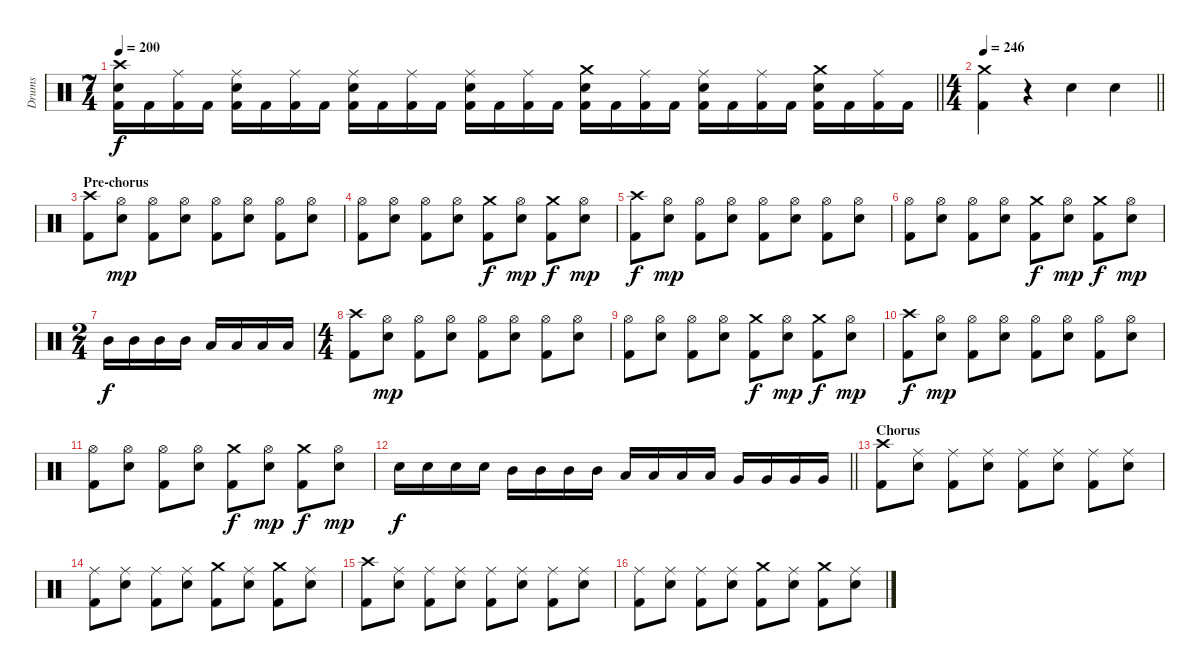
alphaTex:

\track ("Drums" "Drums") {instrument percussion}
\staff {score}
\articulation defaults
\ts (7 4)
\tempo 200
\clef neutral
\barLineRight lightlight
\ks c
("Crash high (hit)" "Snare (hit) 2" "Kick (hit) 2").16{dy f} "Kick (hit) 2".16 ("Ride (middle)" "Kick (hit) 2").16 "Kick (hit) 2".16 ("Ride (middle)" "Snare (hit) 2" "Kick (hit) 2").16 "Kick (hit) 2".16 ("Ride (middle)" "Kick (hit) 2").16 "Kick (hit) 2".16 ("Ride (middle)" "Snare (hit) 2" "Kick (hit) 2").16 "Kick (hit) 2".16 ("Ride (middle)" "Kick (hit) 2").16 "Kick (hit) 2".16 ("Ride (middle)" "Snare (hit) 2" "Kick (hit) 2").16 "Kick (hit) 2".16 ("Ride (middle)" "Kick (hit) 2").16 "Kick (hit) 2".16 ("Crash medium (hit)" "Snare (hit) 2" "Kick (hit) 2").16 "Kick (hit) 2".16 ("Ride (middle)" "Kick (hit) 2").16 "Kick (hit) 2".16 ("Ride (middle)" "Snare (hit) 2" "Kick (hit) 2").16 "Kick (hit) 2".16 ("Ride (middle)" "Kick (hit) 2").16 "Kick (hit) 2".16 ("Crash medium (hit)" "Snare (hit) 2" "Kick (hit) 2").16 "Kick (hit) 2".16 ("Ride (middle)" "Kick (hit) 2").16 "Kick (hit) 2".16 |
\ts (4 4)
\section ("" "")
\tempo 246
\barLineRight lightlight
("Crash medium (hit)" "Kick (hit) 2").4 r.4 "Snare (hit) 2".4 "Snare (hit) 2".4 |
\section ("" "Pre-chorus")
("Crash high (hit)" "Kick (hit) 2").8 ("Hi-Hat (open)" "Snare (hit) 2").8{dy mp} ("Hi-Hat (open)" "Kick (hit) 2").8 ("Hi-Hat (open)" "Snare (hit) 2").8 ("Hi-Hat (open)" "Kick (hit) 2").8 ("Hi-Hat (open)" "Snare (hit) 2").8 ("Hi-Hat (open)" "Kick (hit) 2").8 ("Hi-Hat (open)" "Snare (hit) 2").8 |
("Hi-Hat (open)" "Kick (hit) 2").8 ("Hi-Hat (open)" "Snare (hit) 2").8 ("Hi-Hat (open)" "Kick (hit) 2").8 ("Hi-Hat (open)" "Snare (hit) 2").8 ("Crash medium (hit)" "Kick (hit) 2").8{dy f} ("Hi-Hat (open)" "Snare (hit) 2").8{dy mp} ("Crash medium (hit)" "Kick (hit) 2").8{dy f} ("Hi-Hat (open)" "Snare (hit) 2").8{dy mp} |
("Crash high (hit)" "Kick (hit) 2").8{dy f} ("Hi-Hat (open)" "Snare (hit) 2").8{dy mp} ("Hi-Hat (open)" "Kick (hit) 2").8 ("Hi-Hat (open)" "Snare (hit) 2").8 ("Hi-Hat (open)" "Kick (hit) 2").8 ("Hi-Hat (open)" "Snare (hit) 2").8 ("Hi-Hat (open)" "Kick (hit) 2").8 ("Hi-Hat (open)" "Snare (hit) 2").8 |
("Hi-Hat (open)" "Kick (hit) 2").8 ("Hi-Hat (open)" "Snare (hit) 2").8 ("Hi-Hat (open)" "Kick (hit) 2").8 ("Hi-Hat (open)" "Snare (hit) 2").8 ("Crash medium (hit)" "Kick (hit) 2").8{dy f} ("Hi-Hat (open)" "Snare (hit) 2").8{dy mp} ("Crash medium (hit)" "Kick (hit) 2").8{dy f} ("Hi-Hat (open)" "Snare (hit) 2").8{dy mp} |
\ts (2 4)
"Mid Tom (hit)".16{dy f} "Mid Tom (hit)".16 "Mid Tom (hit)".16 "Mid Tom (hit)".16 "Low Tom (hit)".16 "Low Tom (hit)".16 "Low Tom (hit)".16 "Low Tom (hit)".16 |
\ts (4 4)
("Crash high (hit)" "Kick (hit) 2").8 ("Hi-Hat (open)" "Snare (hit) 2").8{dy mp} ("Hi-Hat (open)" "Kick (hit) 2").8 ("Hi-Hat (open)" "Snare (hit) 2").8 ("Hi-Hat (open)" "Kick (hit) 2").8 ("Hi-Hat (open)" "Snare (hit) 2").8 ("Hi-Hat (open)" "Kick (hit) 2").8 ("Hi-Hat (open)" "Snare (hit) 2").8 |
("Hi-Hat (open)" "Kick (hit) 2").8 ("Hi-Hat (open)" "Snare (hit) 2").8 ("Hi-Hat (open)" "Kick (hit) 2").8 ("Hi-Hat (open)" "Snare (hit) 2").8 ("Crash medium (hit)" "Kick (hit) 2").8{dy f} ("Hi-Hat (open)" "Snare (hit) 2").8{dy mp} ("Crash medium (hit)" "Kick (hit) 2").8{dy f} ("Hi-Hat (open)" "Snare (hit) 2").8{dy mp} |
("Crash high (hit)" "Kick (hit) 2").8{dy f} ("Hi-Hat (open)" "Snare (hit) 2").8{dy mp} ("Hi-Hat (open)" "Kick (hit) 2").8 ("Hi-Hat (open)" "Snare (hit) 2").8 ("Hi-Hat (open)" "Kick (hit) 2").8 ("Hi-Hat (open)" "Snare (hit) 2").8 ("Hi-Hat (open)" "Kick (hit) 2").8 ("Hi-Hat (open)" "Snare (hit) 2").8 |
("Hi-Hat (open)" "Kick (hit) 2").8 ("Hi-Hat (open)" "Snare (hit) 2").8 ("Hi-Hat (open)" "Kick (hit) 2").8 ("Hi-Hat (open)" "Snare (hit) 2").8 ("Crash medium (hit)" "Kick (hit) 2").8{dy f} ("Hi-Hat (open)" "Snare (hit) 2").8{dy mp} ("Crash medium (hit)" "Kick (hit) 2").8{dy f} ("Hi-Hat (open)" "Snare (hit) 2").8{dy mp} |
\barLineRight lightlight "Snare (hit) 2".16{dy f} "Snare (hit) 2".16 "Snare (hit) 2".16 "Snare (hit) 2".16 "Mid Tom (hit)".16 "Mid Tom (hit)".16 "Mid Tom (hit)".16 "Mid Tom (hit)".16 "Low Tom (hit)".16 "Low Tom (hit)".16 "Low Tom (hit)".16 "Low Tom (hit)".16 "Very Low Tom (hit)".16 "Very Low Tom (hit)".16 "Very Low Tom (hit)".16 "Very Low Tom (hit)".16
|
\section ("" "Chorus")
("Crash high (hit)" "Kick (hit) 2").8 ("Ride (middle)" "Snare (hit) 2").8 ("Ride (middle)" "Kick (hit) 2").8 ("Ride (middle)" "Snare (hit) 2").8 ("Ride (middle)" "Kick (hit) 2").8 ("Ride (middle)" "Snare (hit) 2").8 ("Ride (middle)" "Kick (hit) 2").8 ("Ride (middle)" "Snare (hit) 2").8 |
("Ride (middle)" "Kick (hit) 2").8 ("Ride (middle)" "Snare (hit) 2").8 ("Ride (middle)" "Kick (hit) 2").8 ("Ride (middle)" "Snare (hit) 2").8 ("Crash medium (hit)" "Kick (hit) 2").8 ("Ride (middle)" "Snare (hit) 2").8 ("Crash medium (hit)" "Kick (hit) 2").8 ("Ride (middle)" "Snare (hit) 2").8 |
("Crash high (hit)" "Kick (hit) 2").8 ("Ride (middle)" "Snare (hit) 2").8 ("Ride (middle)" "Kick (hit) 2").8 ("Ride (middle)" "Snare (hit) 2").8 ("Ride (middle)" "Kick (hit) 2").8 ("Ride (middle)" "Snare (hit) 2").8 ("Ride (middle)" "Kick (hit) 2").8 ("Ride (middle)" "Snare (hit) 2").8 |
("Ride (middle)" "Kick (hit) 2").8 ("Ride (middle)" "Snare (hit) 2").8 ("Ride (middle)" "Kick (hit) 2").8 ("Ride (middle)" "Snare (hit) 2").8 ("Crash medium (hit)" "Kick (hit) 2").8 ("Ride (middle)" "Snare (hit) 2").8 ("Crash medium (hit)" "Kick (hit) 2").8 ("Ride (middle)" "Snare (hit) 2").8
